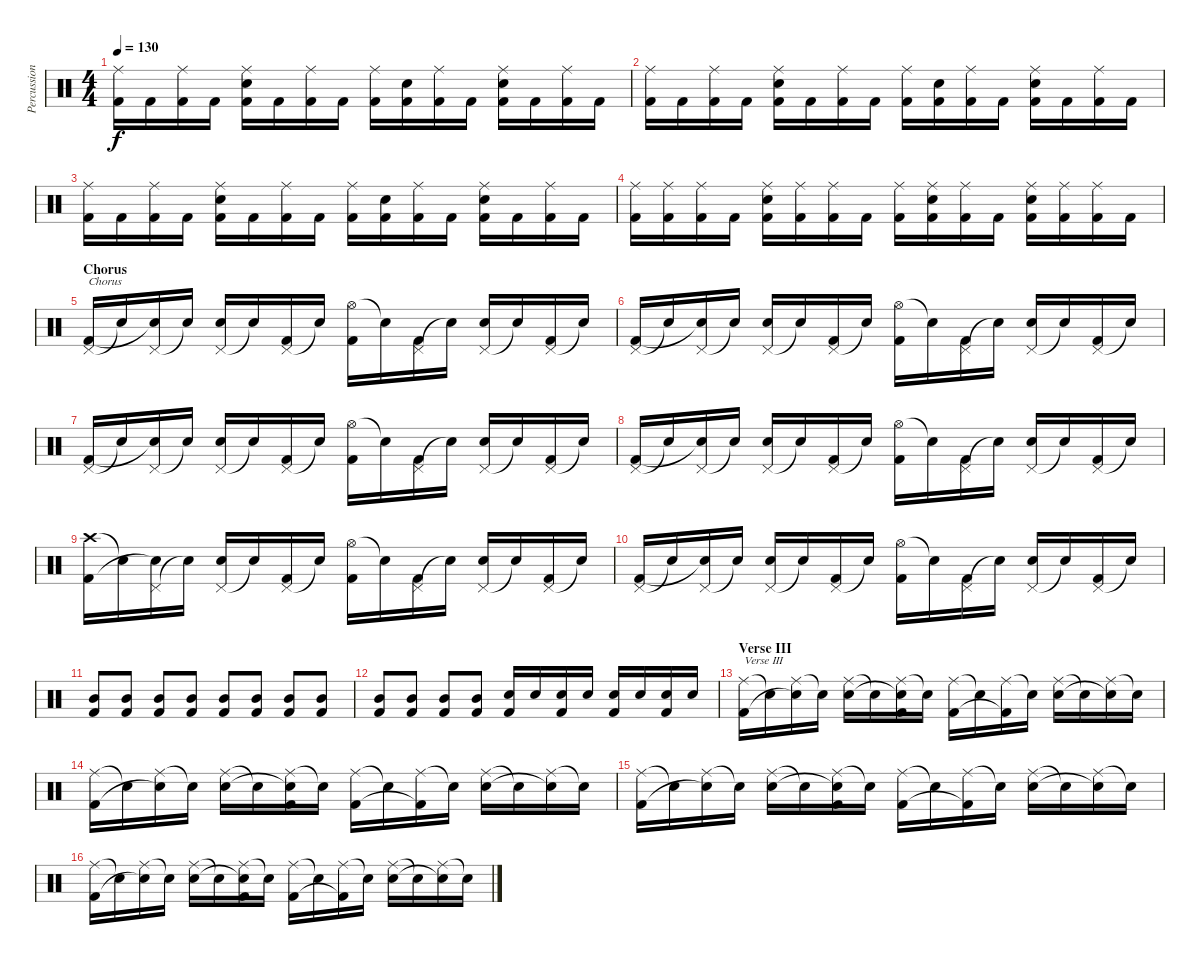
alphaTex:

\track ("Percussion" "Percussion") {instrument percussion}
\staff {score}
\articulation defaults
\ts (4 4)
\tempo 130
\clef neutral
\ks c
("Ride (middle)" "Kick (hit) 2").16{dy f} "Kick (hit) 2".16 ("Ride (middle)" "Kick (hit) 2").16 "Kick (hit) 2".16 ("Ride (middle)" "Electric Snare (hit)" "Kick (hit) 2").16 "Kick (hit) 2".16 ("Ride (middle)" "Kick (hit) 2").16 "Kick (hit) 2".16 ("Ride (middle)" "Kick (hit) 2").16 ("Electric Snare (hit)" "Kick (hit) 2").16 ("Ride (middle)" "Kick (hit) 2").16 "Kick (hit) 2".16 ("Ride (middle)" "Electric Snare (hit)" "Kick (hit) 2").16 "Kick (hit) 2".16 ("Ride (middle)" "Kick (hit) 2").16 "Kick (hit) 2".16 |
("Ride (middle)" "Kick (hit) 2").16 "Kick (hit) 2".16 ("Ride (middle)" "Kick (hit) 2").16 "Kick (hit) 2".16 ("Ride (middle)" "Electric Snare (hit)" "Kick (hit) 2").16 "Kick (hit) 2".16 ("Ride (middle)" "Kick (hit) 2").16 "Kick (hit) 2".16 ("Ride (middle)" "Kick (hit) 2").16 ("Electric Snare (hit)" "Kick (hit) 2").16 ("Ride (middle)" "Kick (hit) 2").16 "Kick (hit) 2".16 ("Ride (middle)" "Electric Snare (hit)" "Kick (hit) 2").16 "Kick (hit) 2".16 ("Ride (middle)" "Kick (hit) 2").16 "Kick (hit) 2".16 |
("Ride (middle)" "Kick (hit) 2").16 "Kick (hit) 2".16 ("Ride (middle)" "Kick (hit) 2").16 "Kick (hit) 2".16 ("Ride (middle)" "Electric Snare (hit)" "Kick (hit) 2").16 "Kick (hit) 2".16 ("Ride (middle)" "Kick (hit) 2").16 "Kick (hit) 2".16 ("Ride (middle)" "Kick (hit) 2").16 ("Electric Snare (hit)" "Kick (hit) 2").16 ("Ride (middle)" "Kick (hit) 2").16 "Kick (hit) 2".16 ("Ride (middle)" "Electric Snare (hit)" "Kick (hit) 2").16 "Kick (hit) 2".16 ("Ride (middle)" "Kick (hit) 2").16 "Kick (hit) 2".16 |
("Ride (middle)" "Kick (hit) 2").16 ("Ride (middle)" "Kick (hit) 2").16 ("Ride (middle)" "Kick (hit) 2").16 "Kick (hit) 2".16 ("Ride (middle)" "Electric Snare (hit)" "Kick (hit) 2").16 ("Ride (middle)" "Kick (hit) 2").16 ("Ride (middle)" "Kick (hit) 2").16 "Kick (hit) 2".16 ("Ride (middle)" "Kick (hit) 2").16 ("Ride (middle)" "Electric Snare (hit)" "Kick (hit) 2").16 ("Ride (middle)" "Kick (hit) 2").16 "Kick (hit) 2".16 ("Ride (middle)" "Electric Snare (hit)" "Kick (hit) 2").16 ("Ride (middle)" "Kick (hit) 2").16 ("Ride (middle)" "Kick (hit) 2").16 "Kick (hit) 2".16 |
\section ("" "Chorus")
("Pedal Hi-Hat (hit)" "Kick (hit) 2").16{txt "Chorus"} "Snare (hit)"{t}.16 ("Pedal Hi-Hat (hit)" "Snare (hit)"{t}).16 "Snare (hit)"{t}.16 ("Pedal Hi-Hat (hit)" "Electric Snare (hit)").16 "Snare (hit)"{t}.16 ("Pedal Hi-Hat (hit)" "Kick (hit) 2").16 "Snare (hit)"{t}.16 ("Hi-Hat (open)" "Kick (hit) 2").16 "Snare (hit)"{t}.16 ("Pedal Hi-Hat (hit)" "Kick (hit) 2").16 "Snare (hit)"{t}.16 ("Pedal Hi-Hat (hit)" "Electric Snare (hit)").16 "Snare (hit)"{t}.16 ("Pedal Hi-Hat (hit)" "Kick (hit) 2").16 "Snare (hit)"{t}.16 |
("Pedal Hi-Hat (hit)" "Kick (hit) 2").16 "Snare (hit)"{t}.16 ("Pedal Hi-Hat (hit)" "Snare (hit)"{t}).16 "Snare (hit)"{t}.16 ("Pedal Hi-Hat (hit)" "Electric Snare (hit)").16 "Snare (hit)"{t}.16 ("Pedal Hi-Hat (hit)" "Kick (hit) 2").16 "Snare (hit)"{t}.16 ("Hi-Hat (open)" "Kick (hit) 2").16 "Snare (hit)"{t}.16 ("Pedal Hi-Hat (hit)" "Kick (hit) 2").16 "Snare (hit)"{t}.16 ("Pedal Hi-Hat (hit)" "Electric Snare (hit)").16 "Snare (hit)"{t}.16 ("Pedal Hi-Hat (hit)" "Kick (hit) 2").16 "Snare (hit)"{t}.16 |
("Pedal Hi-Hat (hit)" "Kick (hit) 2").16 "Snare (hit)"{t}.16 ("Pedal Hi-Hat (hit)" "Snare (hit)"{t}).16 "Snare (hit)"{t}.16 ("Pedal Hi-Hat (hit)" "Electric Snare (hit)").16 "Snare (hit)"{t}.16 ("Pedal Hi-Hat (hit)" "Kick (hit) 2").16 "Snare (hit)"{t}.16 ("Hi-Hat (open)" "Kick (hit) 2").16 "Snare (hit)"{t}.16 ("Pedal Hi-Hat (hit)" "Kick (hit) 2").16 "Snare (hit)"{t}.16 ("Pedal Hi-Hat (hit)" "Electric Snare (hit)").16 "Snare (hit)"{t}.16 ("Pedal Hi-Hat (hit)" "Kick (hit) 2").16 "Snare (hit)"{t}.16 |
("Pedal Hi-Hat (hit)" "Kick (hit) 2").16 "Snare (hit)"{t}.16 ("Pedal Hi-Hat (hit)" "Snare (hit)"{t}).16 "Snare (hit)"{t}.16 ("Pedal Hi-Hat (hit)" "Electric Snare (hit)").16 "Snare (hit)"{t}.16 ("Pedal Hi-Hat (hit)" "Kick (hit) 2").16 "Snare (hit)"{t}.16 ("Hi-Hat (open)" "Kick (hit) 2").16 "Snare (hit)"{t}.16 ("Pedal Hi-Hat (hit)" "Kick (hit) 2").16 "Snare (hit)"{t}.16 ("Pedal Hi-Hat (hit)" "Electric Snare (hit)").16 "Snare (hit)"{t}.16 ("Pedal Hi-Hat (hit)" "Kick (hit) 2").16 "Snare (hit)"{t}.16 |
("Crash high (hit)" "Kick (hit) 2").16 "Snare (hit)"{t}.16 ("Pedal Hi-Hat (hit)" "Snare (hit)"{t}).16 "Snare (hit)"{t}.16 ("Pedal Hi-Hat (hit)" "Electric Snare (hit)").16 "Snare (hit)"{t}.16 ("Pedal Hi-Hat (hit)" "Kick (hit) 2").16 "Snare (hit)"{t}.16 ("Hi-Hat (open)" "Kick (hit) 2").16 "Snare (hit)"{t}.16 ("Pedal Hi-Hat (hit)" "Kick (hit) 2").16 "Snare (hit)"{t}.16 ("Pedal Hi-Hat (hit)" "Electric Snare (hit)").16 "Snare (hit)"{t}.16 ("Pedal Hi-Hat (hit)" "Kick (hit) 2").16 "Snare (hit)"{t}.16 |
("Pedal Hi-Hat (hit)" "Kick (hit) 2").16 "Snare (hit)"{t}.16 ("Pedal Hi-Hat (hit)" "Snare (hit)"{t}).16 "Snare (hit)"{t}.16 ("Pedal Hi-Hat (hit)" "Electric Snare (hit)").16 "Snare (hit)"{t}.16 ("Pedal Hi-Hat (hit)" "Kick (hit) 2").16 "Snare (hit)"{t}.16 ("Hi-Hat (open)" "Kick (hit) 2").16 "Snare (hit)"{t}.16 ("Pedal Hi-Hat (hit)" "Kick (hit) 2").16 "Snare (hit)"{t}.16 ("Pedal Hi-Hat (hit)" "Electric Snare (hit)").16 "Snare (hit)"{t}.16 ("Pedal Hi-Hat (hit)" "Kick (hit) 2").16 "Snare (hit)"{t}.16 |
("Mid Tom (hit)" "Kick (hit) 2").8 ("Mid Tom (hit)" "Kick (hit) 2").8 ("Mid Tom (hit)" "Kick (hit) 2").8 ("Mid Tom (hit)" "Kick (hit) 2").8 ("Mid Tom (hit)" "Kick (hit) 2").8 ("Mid Tom (hit)" "Kick (hit) 2").8 ("Mid Tom (hit)" "Kick (hit) 2").8 ("Mid Tom (hit)" "Kick (hit) 2").8 |
("Mid Tom (hit)" "Kick (hit) 2").8 ("Mid Tom (hit)" "Kick (hit) 2").8 ("Mid Tom (hit)" "Kick (hit) 2").8 ("Mid Tom (hit)" "Kick (hit) 2").8 ("Electric Snare (hit)" "Kick (hit) 2").16 "Electric Snare (hit)".16 ("Electric Snare (hit)" "Kick (hit) 2").16 "Electric Snare (hit)".16 ("Electric Snare (hit)" "Kick (hit) 2").16 "Electric Snare (hit)".16 ("Electric Snare (hit)" "Kick (hit) 2").16 "Electric Snare (hit)".16 |
\section ("" "Verse III")
("Ride (middle)" "Kick (hit) 2").16{txt "Verse III"} "Snare (hit)"{t}.16 ("Ride (middle)" "Snare (hit)"{t}).16 "Snare (hit)"{t}.16 ("Ride (middle)" "Electric Snare (hit)").16 "Snare (hit)"{t}.16 ("Ride (middle)" "Snare (hit)"{t} "Kick (hit) 2").16 "Snare (hit)"{t}.16 ("Ride (middle)" "Kick (hit) 2").16 "Snare (hit)"{t}.16 ("Ride (middle)" "Kick (hit) 2"{t}).16 "Snare (hit)"{t}.16 ("Ride (middle)" "Electric Snare (hit)").16 "Snare (hit)"{t}.16 ("Ride (middle)" "Snare (hit)"{t}).16 "Snare (hit)"{t}.16 |
("Ride (middle)" "Kick (hit) 2").16 "Snare (hit)"{t}.16 ("Ride (middle)" "Snare (hit)"{t}).16 "Snare (hit)"{t}.16 ("Ride (middle)" "Electric Snare (hit)").16 "Snare (hit)"{t}.16 ("Ride (middle)" "Snare (hit)"{t} "Kick (hit) 2").16 "Snare (hit)"{t}.16 ("Ride (middle)" "Kick (hit) 2").16 "Snare (hit)"{t}.16 ("Ride (middle)" "Kick (hit) 2"{t}).16 "Snare (hit)"{t}.16 ("Ride (middle)" "Electric Snare (hit)").16 "Snare (hit)"{t}.16 ("Ride (middle)" "Snare (hit)"{t}).16 "Snare (hit)"{t}.16 |
("Ride (middle)" "Kick (hit) 2").16 "Snare (hit)"{t}.16 ("Ride (middle)" "Snare (hit)"{t}).16 "Snare (hit)"{t}.16 ("Ride (middle)" "Electric Snare (hit)").16 "Snare (hit)"{t}.16 ("Ride (middle)" "Snare (hit)"{t} "Kick (hit) 2").16 "Snare (hit)"{t}.16 ("Ride (middle)" "Kick (hit) 2").16 "Snare (hit)"{t}.16 ("Ride (middle)" "Kick (hit) 2"{t}).16 "Snare (hit)"{t}.16 ("Ride (middle)" "Electric Snare (hit)").16 "Snare (hit)"{t}.16 ("Ride (middle)" "Snare (hit)"{t}).16 "Snare (hit)"{t}.16 |
("Ride (middle)" "Kick (hit) 2").16 "Snare (hit)"{t}.16 ("Ride (middle)" "Snare (hit)"{t}).16 "Snare (hit)"{t}.16 ("Ride (middle)" "Electric Snare (hit)").16 "Snare (hit)"{t}.16 ("Ride (middle)" "Snare (hit)"{t} "Kick (hit) 2").16 "Snare (hit)"{t}.16 ("Ride (middle)" "Kick (hit) 2").16 "Snare (hit)"{t}.16 ("Ride (middle)" "Kick (hit) 2"{t}).16 "Snare (hit)"{t}.16 ("Ride (middle)" "Electric Snare (hit)").16 "Snare (hit)"{t}.16 ("Ride (middle)" "Snare (hit)"{t}).16 "Snare (hit)"{t}.16
